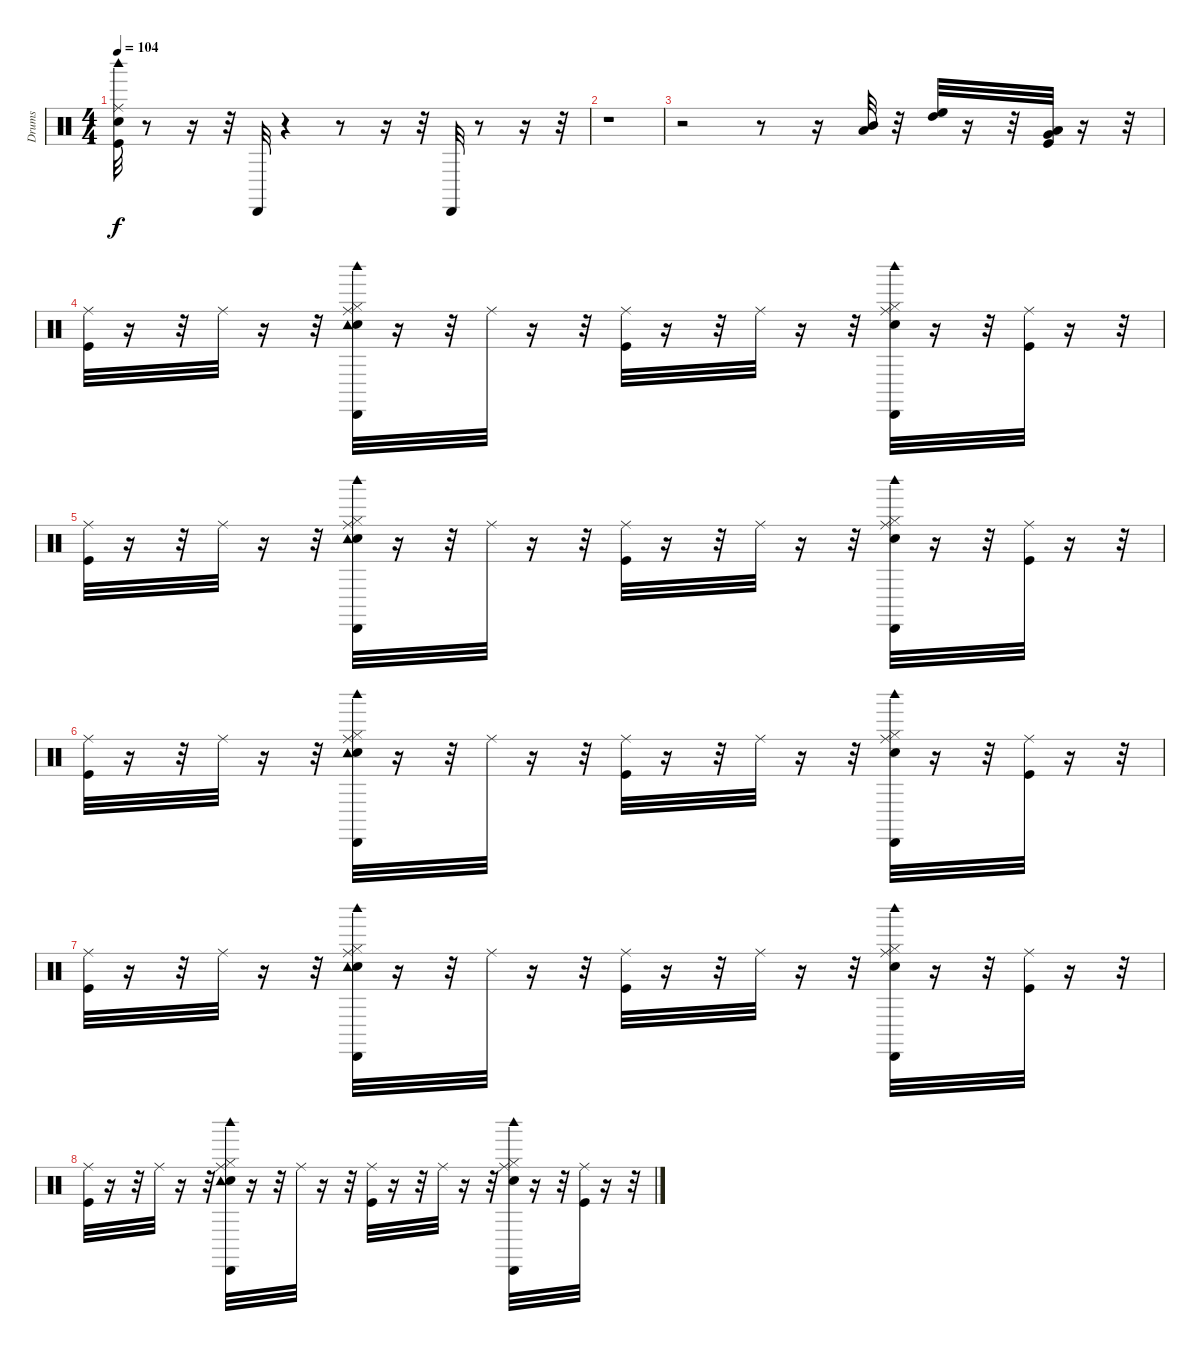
\track ("Drums" "Drums") {instrument percussion}
\staff {score}
\articulation defaults
\ts (4 4)
\tempo 104
\clef neutral
\ks c
("Kick (hit)" "Snare (hit) 2" "Ride (middle)" "Woodblock high (hit)").32{dy f} r.8 r.16 r.32 "Cabasa (hit)".32 r.4 r.8 r.16 r.32 "Cabasa (hit)".32 r.8 r.16 r.32 |
r.1 |
r.2 r.8 r.16 ("Low Tom (hit)" "Mid Tom (hit)").32 r.32 ("High Tom (hit)" "High Floor Tom (hit)").32 r.16 r.32 ("Kick (hit)" "Low Floor Tom (hit)" "Very Low Tom (hit)").32 r.16 r.32 |
("Kick (hit)" "Ride (middle)").32 r.16 r.32 "Ride (middle)".32 r.16 r.32 ("Snare (hit) 2" "Hi-Hat (closed)" "Ride (middle)" "Tambourine (hit)" "Cabasa (hit)" "Woodblock high (hit)").32 r.16 r.32 "Ride (middle)".32 r.16 r.32 ("Kick (hit)" "Ride (middle)").32 r.16 r.32 "Ride (middle)".32 r.16 r.32 ("Snare (hit) 2" "Hi-Hat (closed)" "Ride (middle)" "Cabasa (hit)" "Woodblock high (hit)").32 r.16 r.32 ("Kick (hit)" "Ride (middle)").32 r.16 r.32 |
("Kick (hit)" "Ride (middle)").32 r.16 r.32 "Ride (middle)".32 r.16 r.32 ("Snare (hit) 2" "Hi-Hat (closed)" "Ride (middle)" "Tambourine (hit)" "Cabasa (hit)" "Woodblock high (hit)").32 r.16 r.32 "Ride (middle)".32 r.16 r.32 ("Kick (hit)" "Ride (middle)").32 r.16 r.32 "Ride (middle)".32 r.16 r.32 ("Snare (hit) 2" "Hi-Hat (closed)" "Ride (middle)" "Cabasa (hit)" "Woodblock high (hit)").32 r.16 r.32 ("Kick (hit)" "Ride (middle)").32 r.16 r.32 |
("Kick (hit)" "Ride (middle)").32 r.16 r.32 "Ride (middle)".32 r.16 r.32 ("Snare (hit) 2" "Hi-Hat (closed)" "Ride (middle)" "Tambourine (hit)" "Cabasa (hit)" "Woodblock high (hit)").32 r.16 r.32 "Ride (middle)".32 r.16 r.32 ("Kick (hit)" "Ride (middle)").32 r.16 r.32 "Ride (middle)".32 r.16 r.32 ("Snare (hit) 2" "Hi-Hat (closed)" "Ride (middle)" "Cabasa (hit)" "Woodblock high (hit)").32 r.16 r.32 ("Kick (hit)" "Ride (middle)").32 r.16 r.32 |
("Kick (hit)" "Ride (middle)").32 r.16 r.32 "Ride (middle)".32 r.16 r.32 ("Snare (hit) 2" "Hi-Hat (closed)" "Ride (middle)" "Tambourine (hit)" "Cabasa (hit)" "Woodblock high (hit)").32 r.16 r.32 "Ride (middle)".32 r.16 r.32 ("Kick (hit)" "Ride (middle)").32 r.16 r.32 "Ride (middle)".32 r.16 r.32 ("Snare (hit) 2" "Hi-Hat (closed)" "Ride (middle)" "Cabasa (hit)" "Woodblock high (hit)").32 r.16 r.32 ("Kick (hit)" "Ride (middle)").32 r.16 r.32 |
("Kick (hit)" "Ride (middle)").32 r.16 r.32 "Ride (middle)".32 r.16 r.32 ("Snare (hit) 2" "Hi-Hat (closed)" "Ride (middle)" "Tambourine (hit)" "Cabasa (hit)" "Woodblock high (hit)").32 r.16 r.32 "Ride (middle)".32 r.16 r.32 ("Kick (hit)" "Ride (middle)").32 r.16 r.32 "Ride (middle)".32 r.16 r.32 ("Snare (hit) 2" "Hi-Hat (closed)" "Ride (middle)" "Cabasa (hit)" "Woodblock high (hit)").32 r.16 r.32 ("Kick (hit)" "Ride (middle)").32 r.16 r.32
